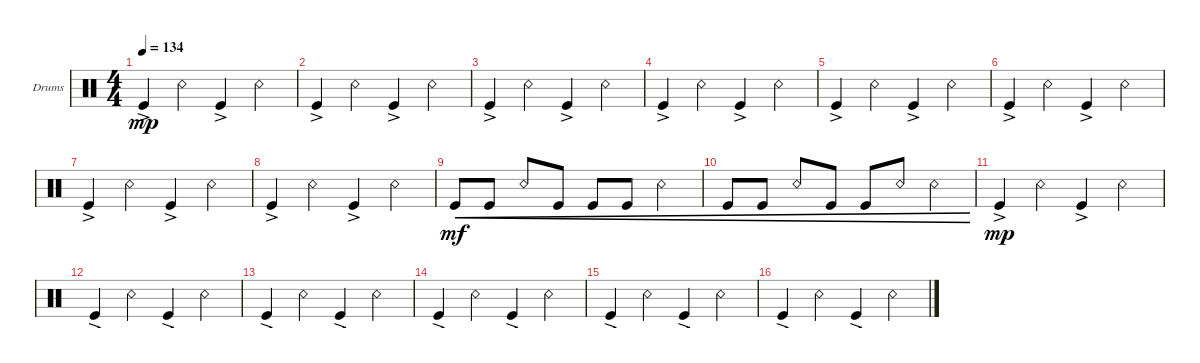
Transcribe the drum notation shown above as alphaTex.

\defaultSystemsLayout 4
\bracketExtendMode groupsimilarinstruments
\firstSystemTrackNameOrientation horizontal
\otherSystemsTrackNameOrientation horizontal
\track ("Drumkit" "Drums") {instrument percussion}
\staff {score}
\articulation defaults
\ts (4 4)
\tempo 134
\clef neutral
\ks c "Kick (hit)"{ac}.4{dy mp} "Snare (rim shot)".4 "Kick (hit)"{ac}.4 "Snare (rim shot)".4
|
"Kick (hit)"{ac}.4 "Snare (rim shot)".4 "Kick (hit)"{ac}.4 "Snare (rim shot)".4 |
"Kick (hit)"{ac}.4 "Snare (rim shot)".4 "Kick (hit)"{ac}.4 "Snare (rim shot)".4 |
"Kick (hit)"{ac}.4 "Snare (rim shot)".4 "Kick (hit)"{ac}.4 "Snare (rim shot)".4 |
"Kick (hit)"{ac}.4 "Snare (rim shot)".4 "Kick (hit)"{ac}.4 "Snare (rim shot)".4 |
"Kick (hit)"{ac}.4 "Snare (rim shot)".4 "Kick (hit)"{ac}.4 "Snare (rim shot)".4 |
"Kick (hit)"{ac}.4 "Snare (rim shot)".4 "Kick (hit)"{ac}.4 "Snare (rim shot)".4 |
"Kick (hit)"{ac}.4 "Snare (rim shot)".4 "Kick (hit)"{ac}.4 "Snare (rim shot)".4 |
"Kick (hit)".8{cre dy mf} "Kick (hit)".8{cre} "Snare (rim shot)".8{cre} "Kick (hit)".8{cre} "Kick (hit)".8{cre} "Kick (hit)".8{cre} "Snare (rim shot)".4{cre} |
"Kick (hit)".8{cre} "Kick (hit)".8{cre} "Snare (rim shot)".8{cre} "Kick (hit)".8{cre} "Kick (hit)".8{cre} "Snare (rim shot)".8{cre} "Snare (rim shot)".4{cre} |
"Kick (hit)"{ac}.4{dy mp} "Snare (rim shot)".4 "Kick (hit)"{ac}.4 "Snare (rim shot)".4 |
"Kick (hit)"{ac}.4 "Snare (rim shot)".4 "Kick (hit)"{ac}.4 "Snare (rim shot)".4 |
"Kick (hit)"{ac}.4 "Snare (rim shot)".4 "Kick (hit)"{ac}.4 "Snare (rim shot)".4 |
"Kick (hit)"{ac}.4 "Snare (rim shot)".4 "Kick (hit)"{ac}.4 "Snare (rim shot)".4 |
"Kick (hit)"{ac}.4 "Snare (rim shot)".4 "Kick (hit)"{ac}.4 "Snare (rim shot)".4 |
"Kick (hit)"{ac}.4 "Snare (rim shot)".4 "Kick (hit)"{ac}.4 "Snare (rim shot)".4
